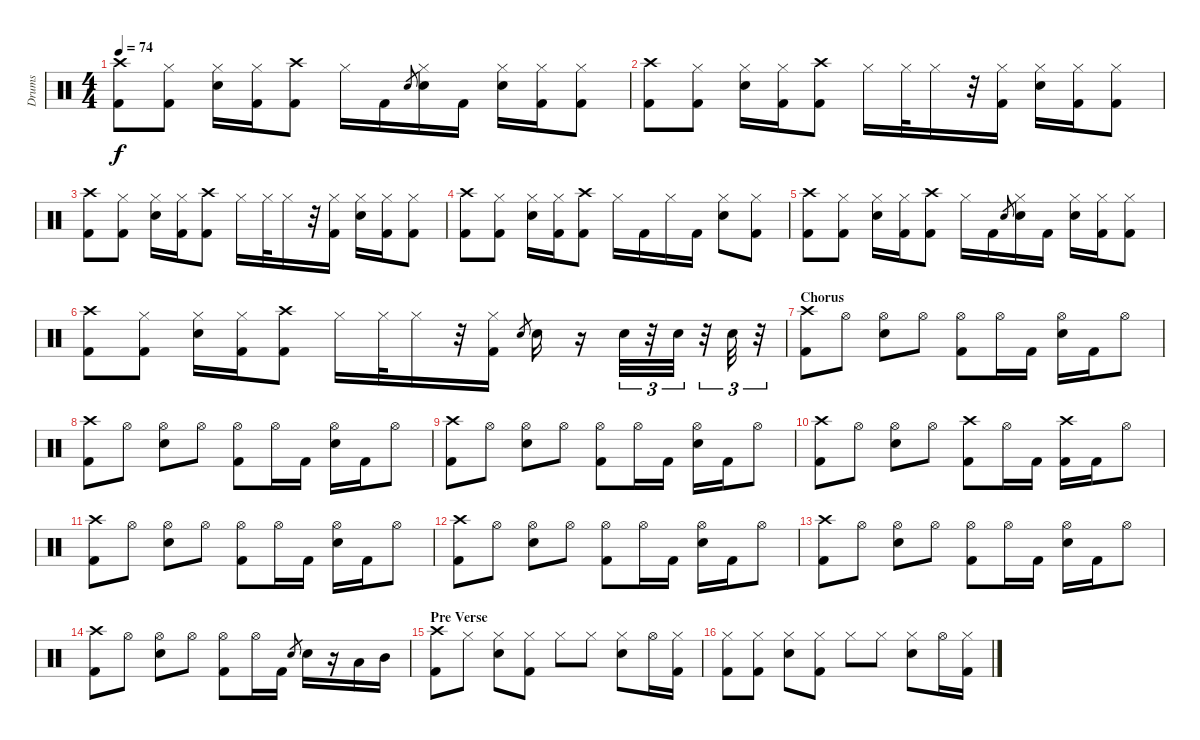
\track ("Drums" "Drums") {instrument percussion}
\staff {score}
\articulation defaults
\ts (4 4)
\tempo 74
\clef neutral
\ks c
("Crash high (hit)" "Kick (hit) 2").8{dy f} ("Hi-Hat (closed)" "Kick (hit) 2").8 ("Hi-Hat (closed)" "Electric Snare (hit)").16 ("Hi-Hat (closed)" "Kick (hit) 2").16 ("Crash high (hit)" "Kick (hit) 2").8 "Hi-Hat (closed)".16 "Kick (hit) 2".16 "Electric Snare (hit)".8{gr} ("Hi-Hat (closed)" "Electric Snare (hit)").16 "Kick (hit) 2".16 ("Hi-Hat (closed)" "Electric Snare (hit)").16 ("Hi-Hat (closed)" "Kick (hit) 2").16 ("Hi-Hat (closed)" "Kick (hit) 2").8 |
("Crash high (hit)" "Kick (hit) 2").8 ("Hi-Hat (closed)" "Kick (hit) 2").8 ("Hi-Hat (closed)" "Electric Snare (hit)").16 ("Hi-Hat (closed)" "Kick (hit) 2").16 ("Crash high (hit)" "Kick (hit) 2").8 "Hi-Hat (closed)".16 "Hi-Hat (closed)".32 "Hi-Hat (closed)".16 r.32 ("Hi-Hat (closed)" "Kick (hit) 2").16 ("Hi-Hat (closed)" "Electric Snare (hit)").16 ("Hi-Hat (closed)" "Kick (hit) 2").16 ("Hi-Hat (closed)" "Kick (hit) 2").8 |
("Crash high (hit)" "Kick (hit) 2").8 ("Hi-Hat (closed)" "Kick (hit) 2").8 ("Hi-Hat (closed)" "Electric Snare (hit)").16 ("Hi-Hat (closed)" "Kick (hit) 2").16 ("Crash high (hit)" "Kick (hit) 2").8 "Hi-Hat (closed)".16 "Hi-Hat (closed)".32 "Hi-Hat (closed)".16 r.32 ("Hi-Hat (closed)" "Kick (hit) 2").16 ("Hi-Hat (closed)" "Electric Snare (hit)").16 ("Hi-Hat (closed)" "Kick (hit) 2").16 ("Hi-Hat (closed)" "Kick (hit) 2").8 |
("Crash high (hit)" "Kick (hit) 2").8 ("Hi-Hat (closed)" "Kick (hit) 2").8 ("Hi-Hat (closed)" "Electric Snare (hit)").16 ("Hi-Hat (closed)" "Kick (hit) 2").16 ("Crash high (hit)" "Kick (hit) 2").8 "Hi-Hat (closed)".16 "Kick (hit) 2".16 "Hi-Hat (closed)".16 "Kick (hit) 2".16 ("Hi-Hat (closed)" "Electric Snare (hit)").8 ("Hi-Hat (closed)" "Kick (hit) 2").8 |
("Crash high (hit)" "Kick (hit) 2").8 ("Hi-Hat (closed)" "Kick (hit) 2").8 ("Hi-Hat (closed)" "Electric Snare (hit)").16 ("Hi-Hat (closed)" "Kick (hit) 2").16 ("Crash high (hit)" "Kick (hit) 2").8 "Hi-Hat (closed)".16 "Kick (hit) 2".16 "Electric Snare (hit)".8{gr} ("Hi-Hat (closed)" "Electric Snare (hit)").16 "Kick (hit) 2".16 ("Hi-Hat (closed)" "Electric Snare (hit)").16 ("Hi-Hat (closed)" "Kick (hit) 2").16 ("Hi-Hat (closed)" "Kick (hit) 2").8 |
("Crash high (hit)" "Kick (hit) 2").8 ("Hi-Hat (closed)" "Kick (hit) 2").8 ("Hi-Hat (closed)" "Electric Snare (hit)").16 ("Hi-Hat (closed)" "Kick (hit) 2").16 ("Crash high (hit)" "Kick (hit) 2").8 "Hi-Hat (closed)".16 "Hi-Hat (closed)".32 "Hi-Hat (closed)".16 r.32 ("Hi-Hat (closed)" "Kick (hit) 2").16 "Electric Snare (hit)".8{gr} "Electric Snare (hit)".16 r.16 "Electric Snare (hit)".32{tu (3 2)} r.32{tu (3 2)} "Electric Snare (hit)".32{tu (3 2)} r.32{tu (3 2)} "Electric Snare (hit)".32{tu (3 2)} r.32{tu (3 2)} |
\section ("" "Chorus")
("Crash high (hit)" "Kick (hit) 2").8 "Hi-Hat (open)".8 ("Hi-Hat (open)" "Electric Snare (hit)").8 "Hi-Hat (open)".8 ("Hi-Hat (open)" "Kick (hit) 2").8 "Hi-Hat (open)".16 "Kick (hit) 2".16 ("Hi-Hat (open)" "Electric Snare (hit)").16 "Kick (hit) 2".16 "Hi-Hat (open)".8 |
("Crash high (hit)" "Kick (hit) 2").8 "Hi-Hat (open)".8 ("Hi-Hat (open)" "Electric Snare (hit)").8 "Hi-Hat (open)".8 ("Hi-Hat (open)" "Kick (hit) 2").8 "Hi-Hat (open)".16 "Kick (hit) 2".16 ("Hi-Hat (open)" "Electric Snare (hit)").16 "Kick (hit) 2".16 "Hi-Hat (open)".8 |
("Crash high (hit)" "Kick (hit) 2").8 "Hi-Hat (open)".8 ("Hi-Hat (open)" "Electric Snare (hit)").8 "Hi-Hat (open)".8 ("Hi-Hat (open)" "Kick (hit) 2").8 "Hi-Hat (open)".16 "Kick (hit) 2".16 ("Hi-Hat (open)" "Electric Snare (hit)").16 "Kick (hit) 2".16 "Hi-Hat (open)".8 |
("Crash high (hit)" "Kick (hit) 2").8 "Hi-Hat (open)".8 ("Hi-Hat (open)" "Electric Snare (hit)").8 "Hi-Hat (open)".8 ("Crash high (hit)" "Kick (hit) 2").8 "Hi-Hat (open)".16 "Kick (hit) 2".16 ("Crash high (hit)" "Kick (hit) 2").16 "Kick (hit) 2".16 "Hi-Hat (open)".8 |
("Crash high (hit)" "Kick (hit) 2").8 "Hi-Hat (open)".8 ("Hi-Hat (open)" "Electric Snare (hit)").8 "Hi-Hat (open)".8 ("Hi-Hat (open)" "Kick (hit) 2").8 "Hi-Hat (open)".16 "Kick (hit) 2".16 ("Hi-Hat (open)" "Electric Snare (hit)").16 "Kick (hit) 2".16 "Hi-Hat (open)".8 |
("Crash high (hit)" "Kick (hit) 2").8 "Hi-Hat (open)".8 ("Hi-Hat (open)" "Electric Snare (hit)").8 "Hi-Hat (open)".8 ("Hi-Hat (open)" "Kick (hit) 2").8 "Hi-Hat (open)".16 "Kick (hit) 2".16 ("Hi-Hat (open)" "Electric Snare (hit)").16 "Kick (hit) 2".16 "Hi-Hat (open)".8 |
("Crash high (hit)" "Kick (hit) 2").8 "Hi-Hat (open)".8 ("Hi-Hat (open)" "Electric Snare (hit)").8 "Hi-Hat (open)".8 ("Hi-Hat (open)" "Kick (hit) 2").8 "Hi-Hat (open)".16 "Kick (hit) 2".16 ("Hi-Hat (open)" "Electric Snare (hit)").16 "Kick (hit) 2".16 "Hi-Hat (open)".8 |
("Crash high (hit)" "Kick (hit) 2").8 "Hi-Hat (open)".8 ("Hi-Hat (open)" "Electric Snare (hit)").8 "Hi-Hat (open)".8 ("Hi-Hat (open)" "Kick (hit) 2").8 "Hi-Hat (open)".16 "Kick (hit) 2".16 "Electric Snare (hit)".8{gr} "Electric Snare (hit)".16 r.16 "Low Tom (hit)".16 "Mid Tom (hit)".16 |
\section ("" "Pre Verse")
("Crash high (hit)" "Kick (hit) 2").8 "Hi-Hat (closed)".8 ("Hi-Hat (closed)" "Electric Snare (hit)").8 ("Hi-Hat (closed)" "Kick (hit) 2").8 "Hi-Hat (closed)".8 "Hi-Hat (closed)".8 ("Hi-Hat (closed)" "Electric Snare (hit)").8 "Hi-Hat (open)".16 ("Hi-Hat (closed)" "Kick (hit) 2").16 |
("Hi-Hat (closed)" "Kick (hit) 2").8 ("Hi-Hat (closed)" "Kick (hit) 2").8 ("Hi-Hat (closed)" "Electric Snare (hit)").8 ("Hi-Hat (closed)" "Kick (hit) 2").8 "Hi-Hat (closed)".8 "Hi-Hat (closed)".8 ("Hi-Hat (closed)" "Electric Snare (hit)").8 "Hi-Hat (open)".16 ("Hi-Hat (closed)" "Kick (hit) 2").16
